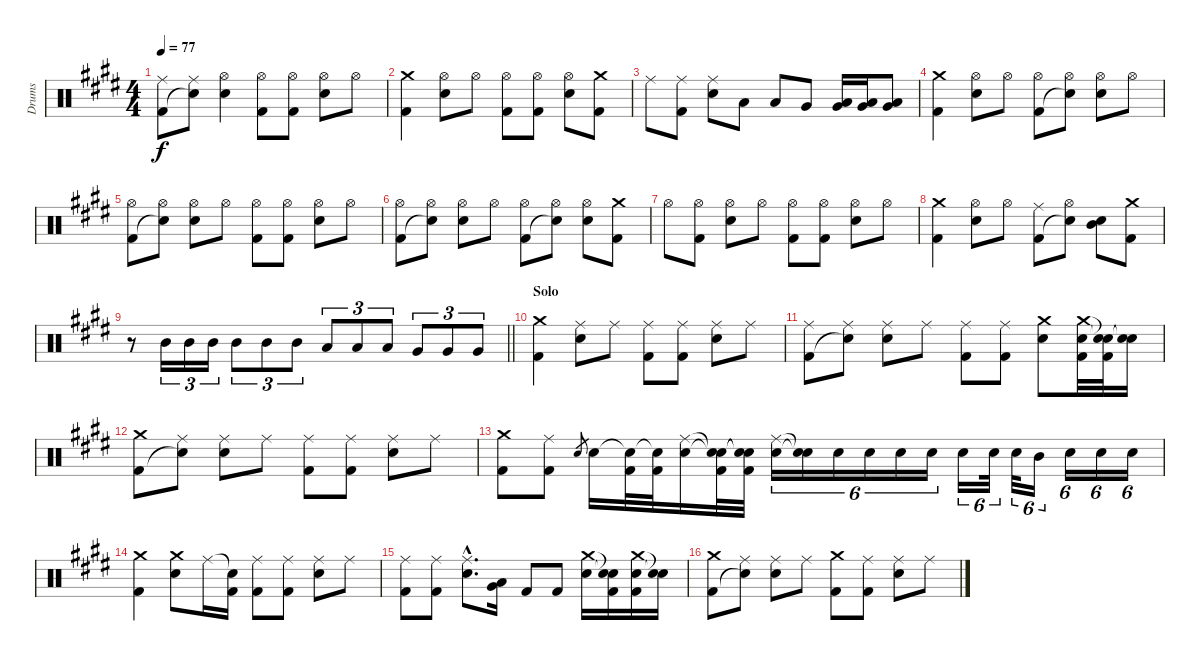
\track ("Drums" "Drums") {instrument percussion}
\staff {score}
\articulation defaults
\ts (4 4)
\tempo 77
\clef neutral
\ks e
("Ride (middle)" "Kick (hit) 2").8{dy f} ("Ride (middle)" "Snare (hit)"{t}).8 ("Hi-Hat (open)" "Electric Snare (hit)").4 ("Hi-Hat (open)" "Kick (hit) 2").8 ("Hi-Hat (open)" "Kick (hit) 2").8 ("Hi-Hat (open)" "Electric Snare (hit)").8 "Hi-Hat (open)".8 |
("Crash medium (hit)" "Kick (hit) 2").4 ("Hi-Hat (open)" "Electric Snare (hit)").8 "Hi-Hat (open)".8 ("Hi-Hat (open)" "Kick (hit) 2").8 ("Hi-Hat (open)" "Kick (hit) 2").8 ("Hi-Hat (open)" "Electric Snare (hit)").8 ("Crash medium (hit)" "Kick (hit) 2").8 |
"Ride (middle)".8 ("Ride (middle)" "Kick (hit) 2").8 ("Ride (middle)" "Electric Snare (hit)").8 "Low Tom (hit)".8 "Low Tom (hit)".8 "Very Low Tom (hit)".8 ("Very Low Tom (hit)" "Low Floor Tom (hit)").16 ("Very Low Tom (hit)" "Low Floor Tom (hit)").16 ("Very Low Tom (hit)" "Low Floor Tom (hit)").8 |
("Crash medium (hit)" "Kick (hit) 2").4 ("Hi-Hat (open)" "Electric Snare (hit)").8 "Hi-Hat (open)".8 ("Hi-Hat (open)" "Kick (hit) 2").8 ("Hi-Hat (open)" "Snare (hit)"{t}).8 ("Hi-Hat (open)" "Electric Snare (hit)").8 "Hi-Hat (open)".8 |
("Hi-Hat (open)" "Kick (hit) 2").8 ("Hi-Hat (open)" "Snare (hit)"{t}).8 ("Hi-Hat (open)" "Electric Snare (hit)").8 "Hi-Hat (open)".8 ("Hi-Hat (open)" "Kick (hit) 2").8 ("Hi-Hat (open)" "Kick (hit) 2").8 ("Hi-Hat (open)" "Electric Snare (hit)").8 "Hi-Hat (open)".8 |
("Hi-Hat (open)" "Kick (hit) 2").8 ("Hi-Hat (open)" "Snare (hit)"{t}).8 ("Hi-Hat (open)" "Electric Snare (hit)").8 "Hi-Hat (open)".8 ("Hi-Hat (open)" "Kick (hit) 2").8 ("Hi-Hat (open)" "Snare (hit)"{t}).8 ("Hi-Hat (open)" "Electric Snare (hit)").8 ("Crash medium (hit)" "Kick (hit) 2").8 |
"Hi-Hat (open)".8 ("Hi-Hat (open)" "Kick (hit) 2").8 ("Hi-Hat (open)" "Electric Snare (hit)").8 "Hi-Hat (open)".8 ("Hi-Hat (open)" "Kick (hit) 2").8 ("Hi-Hat (open)" "Kick (hit) 2").8 ("Hi-Hat (open)" "Electric Snare (hit)").8 "Hi-Hat (open)".8 |
("Crash medium (hit)" "Kick (hit) 2").4 ("Hi-Hat (open)" "Electric Snare (hit)").8 "Hi-Hat (open)".8 ("Ride (middle)" "Kick (hit) 2").8 ("Hi-Hat (open)" "Snare (hit)"{t}).8 ("Electric Snare (hit)" "Mid Tom (hit)").8 ("Crash medium (hit)" "Kick (hit) 2").8 |
\barLineRight lightlight
r.8 "Mid Tom (hit)".16{tu (3 2)} "Mid Tom (hit)".16{tu (3 2)} "Mid Tom (hit)".16{tu (3 2)} "Mid Tom (hit)".8{tu (3 2)} "Mid Tom (hit)".8{tu (3 2)} "Mid Tom (hit)".8{tu (3 2)} "Low Tom (hit)".8{tu (3 2)} "Low Tom (hit)".8{tu (3 2)} "Low Tom (hit)".8{tu (3 2)} "Very Low Tom (hit)".8{tu (3 2)} "Very Low Tom (hit)".8{tu (3 2)} "Very Low Tom (hit)".8{tu (3 2)} |
\section ("" "Solo")
("Crash medium (hit)" "Kick (hit) 2").4 ("Ride (middle)" "Electric Snare (hit)").8 "Ride (middle)".8 ("Ride (middle)" "Kick (hit) 2").8 ("Ride (middle)" "Kick (hit) 2").8 ("Ride (middle)" "Electric Snare (hit)").8 "Ride (middle)".8 |
("Ride (middle)" "Kick (hit) 2").8 ("Ride (middle)" "Snare (hit)"{t}).8 ("Ride (middle)" "Electric Snare (hit)").8 "Ride (middle)".8 ("Ride (middle)" "Kick (hit) 2").8 ("Ride (middle)" "Kick (hit) 2").8 ("Crash medium (hit)" "Electric Snare (hit)").8 ("Crash medium (hit)" "Electric Snare (hit)" "Kick (hit) 2").32 ("Snare (hit)"{t} "Snare (hit)"{t} "Kick (hit) 2").32 ("Snare (hit)"{t} "Snare (hit)"{t}).16 |
("Crash medium (hit)" "Kick (hit) 2").8 ("Ride (middle)" "Snare (hit)"{t}).8 ("Ride (middle)" "Electric Snare (hit)").8 "Ride (middle)".8 ("Ride (middle)" "Kick (hit) 2").8 ("Ride (middle)" "Kick (hit) 2").8 ("Ride (middle)" "Electric Snare (hit)").8 "Ride (middle)".8 |
("Crash medium (hit)" "Kick (hit) 2").8 ("Ride (middle)" "Kick (hit) 2").8 "Electric Snare (hit)".8{gr} "Electric Snare (hit)".16 ("Snare (hit)"{t} "Kick (hit) 2").32 ("Snare (hit)"{t} "Kick (hit) 2").32 ("Ride (middle)" "Electric Snare (hit)").16 ("Snare (hit)"{t} "Snare (hit)"{t} "Kick (hit) 2").32 ("Snare (hit)"{t} "Snare (hit)"{t} "Kick (hit) 2").32 ("Ride (middle)" "Electric Snare (hit)").16{tu (6 4)} ("Snare (hit)"{t} "Electric Snare (hit)"{t}).16{tu (6 4)} "Electric Snare (hit)".16{tu (6 4)} "Electric Snare (hit)".16{tu (6 4)} "Electric Snare (hit)".16{tu (6 4)} "Electric Snare (hit)".16{tu (6 4)} "Electric Snare (hit)".16{tu (6 4)} "Electric Snare (hit)".32{tu (6 4)} "Electric Snare (hit)".32{tu (6 4)} "Mid Tom (hit)".16{tu (6 4)} "Electric Snare (hit)".16{tu (6 4)} "Electric Snare (hit)".16{tu (6 4)} "Electric Snare (hit)".16{tu (6 4)} |
("Crash medium (hit)" "Kick (hit) 2").4 ("Crash medium (hit)" "Electric Snare (hit)").8 "Ride (middle)".16 ("Snare (hit)"{t} "Kick (hit) 2").16 ("Ride (middle)" "Kick (hit) 2").8 ("Ride (middle)" "Kick (hit) 2").8 ("Ride (middle)" "Electric Snare (hit)").8 "Ride (middle)".8 |
("Ride (middle)" "Kick (hit) 2").8 ("Ride (middle)" "Kick (hit) 2").8 ("Ride (middle)"{hac} "Electric Snare (hit)"{hac}).8{d} ("Low Tom (hit)" "Very Low Tom (hit)").16 "Kick (hit) 2".8 "Kick (hit) 2".8 ("Crash medium (hit)" "Electric Snare (hit)").16 ("Snare (hit)"{t} "Snare (hit)"{t} "Kick (hit) 2").16 ("Crash medium (hit)" "Electric Snare (hit)" "Kick (hit) 2").16 ("Snare (hit)"{t} "Snare (hit)"{t}).16 |
("Crash medium (hit)" "Kick (hit) 2").8 ("Ride (middle)" "Snare (hit)"{t}).8 ("Ride (middle)" "Electric Snare (hit)").8 "Ride (middle)".8 ("Crash medium (hit)" "Kick (hit) 2").8 ("Ride (middle)" "Kick (hit) 2").8 ("Ride (middle)" "Electric Snare (hit)").8 "Ride (middle)".8
